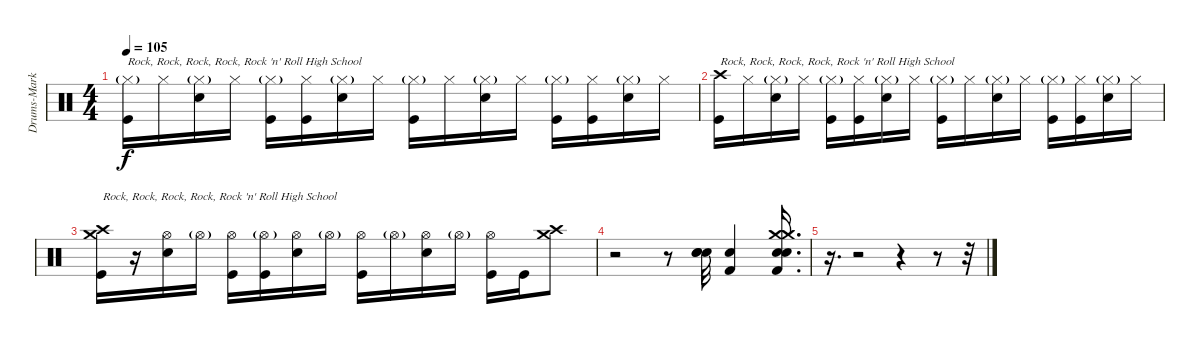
\track ("Drums-Marky Ramone" "Drums-Mark") {instrument percussion}
\staff {score}
\articulation defaults
\ts (4 4)
\tempo 105
\clef neutral
\ks c
("Hi-Hat (closed)"{g} "Kick (hit)").16{txt "Rock, Rock, Rock, Rock, Rock 'n' Roll High School" dy f} "Hi-Hat (closed)".16 ("Hi-Hat (closed)"{g} "Snare (hit) 2").16 "Hi-Hat (closed)".16 ("Hi-Hat (closed)"{g} "Kick (hit)").16 ("Hi-Hat (closed)" "Kick (hit)").16 ("Hi-Hat (closed)"{g} "Snare (hit) 2").16 "Hi-Hat (closed)".16 ("Hi-Hat (closed)"{g} "Kick (hit)").16 "Hi-Hat (closed)".16 ("Hi-Hat (closed)"{g} "Snare (hit) 2").16 "Hi-Hat (closed)".16 ("Hi-Hat (closed)"{g} "Kick (hit)").16 ("Hi-Hat (closed)" "Kick (hit)").16 ("Hi-Hat (closed)"{g} "Snare (hit) 2").16 "Hi-Hat (closed)".16 |
("Crash high (hit)" "Kick (hit)").16{txt "Rock, Rock, Rock, Rock, Rock 'n' Roll High School"} "Hi-Hat (closed)".16 ("Hi-Hat (closed)"{g} "Snare (hit) 2").16 "Hi-Hat (closed)".16 ("Hi-Hat (closed)"{g} "Kick (hit)").16 ("Hi-Hat (closed)" "Kick (hit)").16 ("Hi-Hat (closed)"{g} "Snare (hit) 2").16 "Hi-Hat (closed)".16 ("Hi-Hat (closed)"{g} "Kick (hit)").16 "Hi-Hat (closed)".16 ("Hi-Hat (closed)"{g} "Snare (hit) 2").16 "Hi-Hat (closed)".16 ("Hi-Hat (closed)"{g} "Kick (hit)").16 ("Hi-Hat (closed)" "Kick (hit)").16 ("Hi-Hat (closed)"{g} "Snare (hit) 2").16 "Hi-Hat (closed)".16 |
("Crash medium (hit)" "Crash high (hit)" "Kick (hit)").16{txt "Rock, Rock, Rock, Rock, Rock 'n' Roll High School"} r.16 ("Hi-Hat (open)" "Snare (hit) 2").16 "Hi-Hat (open)"{g}.16 ("Hi-Hat (open)" "Kick (hit)").16 ("Hi-Hat (open)"{g} "Kick (hit)").16 ("Hi-Hat (open)" "Snare (hit) 2").16 "Hi-Hat (open)"{g}.16 ("Hi-Hat (open)" "Kick (hit)").16 "Hi-Hat (open)"{g}.16 ("Hi-Hat (open)" "Snare (hit) 2").16 "Hi-Hat (open)"{g}.16 ("Hi-Hat (open)" "Kick (hit)").16 "Kick (hit)".16 ("Crash medium (hit)" "Crash high (hit)").8 |
r.2 r.8 ("Snare (hit)" "Snare (hit)" "Snare (hit) 2").32 ("Snare (hit) 2" "Kick (hit) 2").4 ("Crash medium (hit)" "Crash medium (hit)" "Snare (hit)" "Snare (hit) 2" "Kick (hit) 2").16{d} |
r.16{d} r.2 r.4 r.8 r.32
